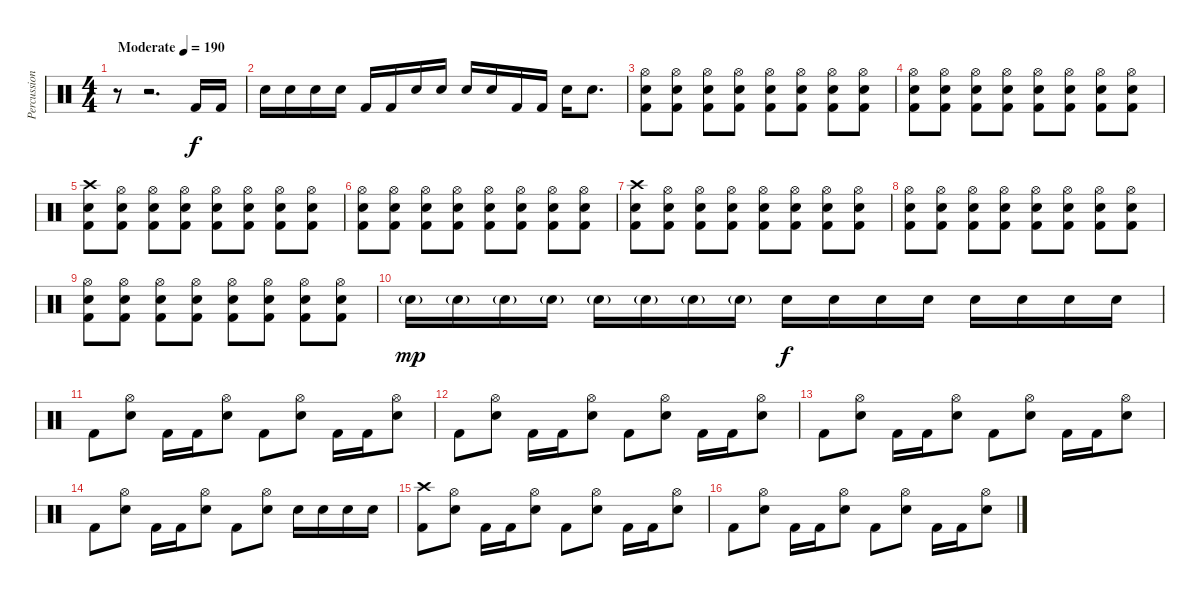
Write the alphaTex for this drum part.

\track ("Percussion" "Percussion") {instrument percussion}
\staff {score}
\articulation defaults
\ts (4 4)
\tempo (190 "Moderate")
\clef neutral
\ks c
r.8{dy f} r.2{d} "Kick (hit) 2".16 "Kick (hit) 2".16 |
"Snare (hit) 2".16 "Snare (hit) 2".16 "Snare (hit) 2".16 "Snare (hit) 2".16 "Kick (hit) 2".16 "Kick (hit) 2".16 "Snare (hit) 2".16 "Snare (hit) 2".16 "Snare (hit) 2".16 "Snare (hit) 2".16 "Kick (hit) 2".16 "Kick (hit) 2".16 "Snare (hit) 2".16 "Snare (hit) 2".8{d} |
("Hi-Hat (open)" "Snare (hit) 2" "Kick (hit) 2").8 ("Hi-Hat (open)" "Snare (hit) 2" "Kick (hit) 2").8 ("Hi-Hat (open)" "Snare (hit) 2" "Kick (hit) 2").8 ("Hi-Hat (open)" "Snare (hit) 2" "Kick (hit) 2").8 ("Hi-Hat (open)" "Snare (hit) 2" "Kick (hit) 2").8 ("Hi-Hat (open)" "Snare (hit) 2" "Kick (hit) 2").8 ("Hi-Hat (open)" "Snare (hit) 2" "Kick (hit) 2").8 ("Hi-Hat (open)" "Snare (hit) 2" "Kick (hit) 2").8 |
("Hi-Hat (open)" "Snare (hit) 2" "Kick (hit) 2").8 ("Hi-Hat (open)" "Snare (hit) 2" "Kick (hit) 2").8 ("Hi-Hat (open)" "Snare (hit) 2" "Kick (hit) 2").8 ("Hi-Hat (open)" "Snare (hit) 2" "Kick (hit) 2").8 ("Hi-Hat (open)" "Snare (hit) 2" "Kick (hit) 2").8 ("Hi-Hat (open)" "Snare (hit) 2" "Kick (hit) 2").8 ("Hi-Hat (open)" "Snare (hit) 2" "Kick (hit) 2").8 ("Hi-Hat (open)" "Snare (hit) 2" "Kick (hit) 2").8 |
("Crash high (hit)" "Snare (hit) 2" "Kick (hit) 2").8 ("Hi-Hat (open)" "Snare (hit) 2" "Kick (hit) 2").8 ("Hi-Hat (open)" "Snare (hit) 2" "Kick (hit) 2").8 ("Hi-Hat (open)" "Snare (hit) 2" "Kick (hit) 2").8 ("Hi-Hat (open)" "Snare (hit) 2" "Kick (hit) 2").8 ("Hi-Hat (open)" "Snare (hit) 2" "Kick (hit) 2").8 ("Hi-Hat (open)" "Snare (hit) 2" "Kick (hit) 2").8 ("Hi-Hat (open)" "Snare (hit) 2" "Kick (hit) 2").8 |
("Hi-Hat (open)" "Snare (hit) 2" "Kick (hit) 2").8 ("Hi-Hat (open)" "Snare (hit) 2" "Kick (hit) 2").8 ("Hi-Hat (open)" "Snare (hit) 2" "Kick (hit) 2").8 ("Hi-Hat (open)" "Snare (hit) 2" "Kick (hit) 2").8 ("Hi-Hat (open)" "Snare (hit) 2" "Kick (hit) 2").8 ("Hi-Hat (open)" "Snare (hit) 2" "Kick (hit) 2").8 ("Hi-Hat (open)" "Snare (hit) 2" "Kick (hit) 2").8 ("Hi-Hat (open)" "Snare (hit) 2" "Kick (hit) 2").8 |
("Crash high (hit)" "Snare (hit) 2" "Kick (hit) 2").8 ("Hi-Hat (open)" "Snare (hit) 2" "Kick (hit) 2").8 ("Hi-Hat (open)" "Snare (hit) 2" "Kick (hit) 2").8 ("Hi-Hat (open)" "Snare (hit) 2" "Kick (hit) 2").8 ("Hi-Hat (open)" "Snare (hit) 2" "Kick (hit) 2").8 ("Hi-Hat (open)" "Snare (hit) 2" "Kick (hit) 2").8 ("Hi-Hat (open)" "Snare (hit) 2" "Kick (hit) 2").8 ("Hi-Hat (open)" "Snare (hit) 2" "Kick (hit) 2").8 |
("Hi-Hat (open)" "Snare (hit) 2" "Kick (hit) 2").8 ("Hi-Hat (open)" "Snare (hit) 2" "Kick (hit) 2").8 ("Hi-Hat (open)" "Snare (hit) 2" "Kick (hit) 2").8 ("Hi-Hat (open)" "Snare (hit) 2" "Kick (hit) 2").8 ("Hi-Hat (open)" "Snare (hit) 2" "Kick (hit) 2").8 ("Hi-Hat (open)" "Snare (hit) 2" "Kick (hit) 2").8 ("Hi-Hat (open)" "Snare (hit) 2" "Kick (hit) 2").8 ("Hi-Hat (open)" "Snare (hit) 2" "Kick (hit) 2").8 |
("Hi-Hat (open)" "Snare (hit) 2" "Kick (hit) 2").8 ("Hi-Hat (open)" "Snare (hit) 2" "Kick (hit) 2").8 ("Hi-Hat (open)" "Snare (hit) 2" "Kick (hit) 2").8 ("Hi-Hat (open)" "Snare (hit) 2" "Kick (hit) 2").8 ("Hi-Hat (open)" "Snare (hit) 2" "Kick (hit) 2").8 ("Hi-Hat (open)" "Snare (hit) 2" "Kick (hit) 2").8 ("Hi-Hat (open)" "Snare (hit) 2" "Kick (hit) 2").8 ("Hi-Hat (open)" "Snare (hit) 2" "Kick (hit) 2").8 |
"Snare (hit) 2"{g}.16{dy mp} "Snare (hit) 2"{g}.16 "Snare (hit) 2"{g}.16 "Snare (hit) 2"{g}.16 "Snare (hit) 2"{g}.16 "Snare (hit) 2"{g}.16 "Snare (hit) 2"{g}.16 "Snare (hit) 2"{g}.16 "Snare (hit) 2".16{dy f} "Snare (hit) 2".16 "Snare (hit) 2".16 "Snare (hit) 2".16 "Snare (hit) 2".16 "Snare (hit) 2".16 "Snare (hit) 2".16 "Snare (hit) 2".16 |
"Kick (hit) 2".8 ("Hi-Hat (open)" "Snare (hit) 2").8 "Kick (hit) 2".16 "Kick (hit) 2".16 ("Hi-Hat (open)" "Snare (hit) 2").8 "Kick (hit) 2".8 ("Hi-Hat (open)" "Snare (hit) 2").8 "Kick (hit) 2".16 "Kick (hit) 2".16 ("Hi-Hat (open)" "Snare (hit) 2").8 |
"Kick (hit) 2".8 ("Hi-Hat (open)" "Snare (hit) 2").8 "Kick (hit) 2".16 "Kick (hit) 2".16 ("Hi-Hat (open)" "Snare (hit) 2").8 "Kick (hit) 2".8 ("Hi-Hat (open)" "Snare (hit) 2").8 "Kick (hit) 2".16 "Kick (hit) 2".16 ("Hi-Hat (open)" "Snare (hit) 2").8 |
"Kick (hit) 2".8 ("Hi-Hat (open)" "Snare (hit) 2").8 "Kick (hit) 2".16 "Kick (hit) 2".16 ("Hi-Hat (open)" "Snare (hit) 2").8 "Kick (hit) 2".8 ("Hi-Hat (open)" "Snare (hit) 2").8 "Kick (hit) 2".16 "Kick (hit) 2".16 ("Hi-Hat (open)" "Snare (hit) 2").8 |
"Kick (hit) 2".8 ("Hi-Hat (open)" "Snare (hit) 2").8 "Kick (hit) 2".16 "Kick (hit) 2".16 ("Hi-Hat (open)" "Snare (hit) 2").8 "Kick (hit) 2".8 ("Hi-Hat (open)" "Snare (hit) 2").8 "Snare (hit) 2".16 "Snare (hit) 2".16 "Snare (hit) 2".16 "Snare (hit) 2".16 |
("Crash high (hit)" "Kick (hit) 2").8 ("Hi-Hat (open)" "Snare (hit) 2").8 "Kick (hit) 2".16 "Kick (hit) 2".16 ("Hi-Hat (open)" "Snare (hit) 2").8 "Kick (hit) 2".8 ("Hi-Hat (open)" "Snare (hit) 2").8 "Kick (hit) 2".16 "Kick (hit) 2".16 ("Hi-Hat (open)" "Snare (hit) 2").8 |
"Kick (hit) 2".8 ("Hi-Hat (open)" "Snare (hit) 2").8 "Kick (hit) 2".16 "Kick (hit) 2".16 ("Hi-Hat (open)" "Snare (hit) 2").8 "Kick (hit) 2".8 ("Hi-Hat (open)" "Snare (hit) 2").8 "Kick (hit) 2".16 "Kick (hit) 2".16 ("Hi-Hat (open)" "Snare (hit) 2").8
